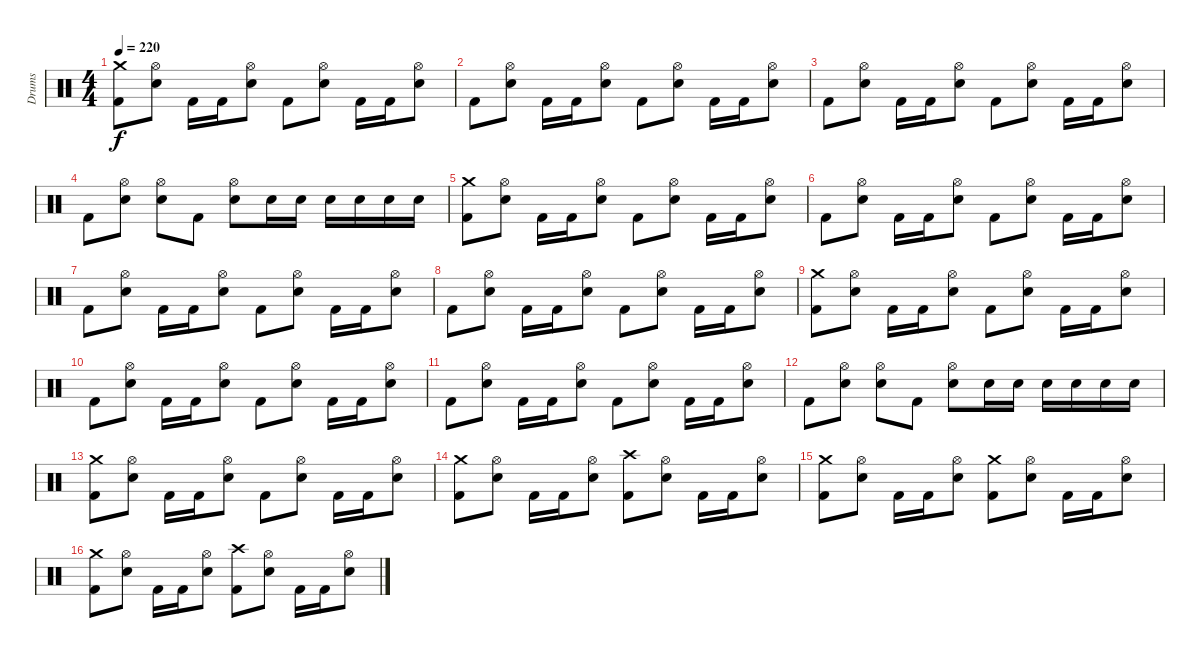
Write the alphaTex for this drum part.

\track ("Drums" "Drums") {instrument percussion}
\staff {score}
\articulation defaults
\ts (4 4)
\tempo 220
\clef neutral
\ks c
("Crash medium (hit)" "Kick (hit) 2").8{dy f} ("Hi-Hat (open)" "Electric Snare (hit)").8 "Kick (hit) 2".16 "Kick (hit) 2".16 ("Hi-Hat (open)" "Electric Snare (hit)").8 "Kick (hit) 2".8 ("Hi-Hat (open)" "Electric Snare (hit)").8 "Kick (hit) 2".16 "Kick (hit) 2".16 ("Hi-Hat (open)" "Electric Snare (hit)").8 |
"Kick (hit) 2".8 ("Hi-Hat (open)" "Electric Snare (hit)").8 "Kick (hit) 2".16 "Kick (hit) 2".16 ("Hi-Hat (open)" "Electric Snare (hit)").8 "Kick (hit) 2".8 ("Hi-Hat (open)" "Electric Snare (hit)").8 "Kick (hit) 2".16 "Kick (hit) 2".16 ("Hi-Hat (open)" "Electric Snare (hit)").8 |
"Kick (hit) 2".8 ("Hi-Hat (open)" "Electric Snare (hit)").8 "Kick (hit) 2".16 "Kick (hit) 2".16 ("Hi-Hat (open)" "Electric Snare (hit)").8 "Kick (hit) 2".8 ("Hi-Hat (open)" "Electric Snare (hit)").8 "Kick (hit) 2".16 "Kick (hit) 2".16 ("Hi-Hat (open)" "Electric Snare (hit)").8 |
"Kick (hit) 2".8 ("Hi-Hat (open)" "Electric Snare (hit)").8 ("Hi-Hat (open)" "Electric Snare (hit)").8 "Kick (hit) 2".8 ("Hi-Hat (open)" "Electric Snare (hit)").8 "Electric Snare (hit)".16 "Electric Snare (hit)".16 "Electric Snare (hit)".16 "Electric Snare (hit)".16 "Electric Snare (hit)".16 "Electric Snare (hit)".16 |
("Crash medium (hit)" "Kick (hit) 2").8 ("Hi-Hat (open)" "Electric Snare (hit)").8 "Kick (hit) 2".16 "Kick (hit) 2".16 ("Hi-Hat (open)" "Electric Snare (hit)").8 "Kick (hit) 2".8 ("Hi-Hat (open)" "Electric Snare (hit)").8 "Kick (hit) 2".16 "Kick (hit) 2".16 ("Hi-Hat (open)" "Electric Snare (hit)").8 |
"Kick (hit) 2".8 ("Hi-Hat (open)" "Electric Snare (hit)").8 "Kick (hit) 2".16 "Kick (hit) 2".16 ("Hi-Hat (open)" "Electric Snare (hit)").8 "Kick (hit) 2".8 ("Hi-Hat (open)" "Electric Snare (hit)").8 "Kick (hit) 2".16 "Kick (hit) 2".16 ("Hi-Hat (open)" "Electric Snare (hit)").8 |
"Kick (hit) 2".8 ("Hi-Hat (open)" "Electric Snare (hit)").8 "Kick (hit) 2".16 "Kick (hit) 2".16 ("Hi-Hat (open)" "Electric Snare (hit)").8 "Kick (hit) 2".8 ("Hi-Hat (open)" "Electric Snare (hit)").8 "Kick (hit) 2".16 "Kick (hit) 2".16 ("Hi-Hat (open)" "Electric Snare (hit)").8 |
"Kick (hit) 2".8 ("Hi-Hat (open)" "Electric Snare (hit)").8 "Kick (hit) 2".16 "Kick (hit) 2".16 ("Hi-Hat (open)" "Electric Snare (hit)").8 "Kick (hit) 2".8 ("Hi-Hat (open)" "Electric Snare (hit)").8 "Kick (hit) 2".16 "Kick (hit) 2".16 ("Hi-Hat (open)" "Electric Snare (hit)").8 |
("Crash medium (hit)" "Kick (hit) 2").8 ("Hi-Hat (open)" "Electric Snare (hit)").8 "Kick (hit) 2".16 "Kick (hit) 2".16 ("Hi-Hat (open)" "Electric Snare (hit)").8 "Kick (hit) 2".8 ("Hi-Hat (open)" "Electric Snare (hit)").8 "Kick (hit) 2".16 "Kick (hit) 2".16 ("Hi-Hat (open)" "Electric Snare (hit)").8 |
"Kick (hit) 2".8 ("Hi-Hat (open)" "Electric Snare (hit)").8 "Kick (hit) 2".16 "Kick (hit) 2".16 ("Hi-Hat (open)" "Electric Snare (hit)").8 "Kick (hit) 2".8 ("Hi-Hat (open)" "Electric Snare (hit)").8 "Kick (hit) 2".16 "Kick (hit) 2".16 ("Hi-Hat (open)" "Electric Snare (hit)").8 |
"Kick (hit) 2".8 ("Hi-Hat (open)" "Electric Snare (hit)").8 "Kick (hit) 2".16 "Kick (hit) 2".16 ("Hi-Hat (open)" "Electric Snare (hit)").8 "Kick (hit) 2".8 ("Hi-Hat (open)" "Electric Snare (hit)").8 "Kick (hit) 2".16 "Kick (hit) 2".16 ("Hi-Hat (open)" "Electric Snare (hit)").8 |
"Kick (hit) 2".8 ("Hi-Hat (open)" "Electric Snare (hit)").8 ("Hi-Hat (open)" "Electric Snare (hit)").8 "Kick (hit) 2".8 ("Hi-Hat (open)" "Electric Snare (hit)").8 "Electric Snare (hit)".16 "Electric Snare (hit)".16 "Electric Snare (hit)".16 "Electric Snare (hit)".16 "Electric Snare (hit)".16 "Electric Snare (hit)".16 |
("Crash medium (hit)" "Kick (hit) 2").8 ("Hi-Hat (open)" "Electric Snare (hit)").8 "Kick (hit) 2".16 "Kick (hit) 2".16 ("Hi-Hat (open)" "Electric Snare (hit)").8 "Kick (hit) 2".8 ("Hi-Hat (open)" "Electric Snare (hit)").8 "Kick (hit) 2".16 "Kick (hit) 2".16 ("Hi-Hat (open)" "Electric Snare (hit)").8 |
("Crash medium (hit)" "Kick (hit) 2").8 ("Hi-Hat (open)" "Electric Snare (hit)").8 "Kick (hit) 2".16 "Kick (hit) 2".16 ("Hi-Hat (open)" "Electric Snare (hit)").8 ("Crash high (hit)" "Kick (hit) 2").8 ("Hi-Hat (open)" "Electric Snare (hit)").8 "Kick (hit) 2".16 "Kick (hit) 2".16 ("Hi-Hat (open)" "Electric Snare (hit)").8 |
("Crash medium (hit)" "Kick (hit) 2").8 ("Hi-Hat (open)" "Electric Snare (hit)").8 "Kick (hit) 2".16 "Kick (hit) 2".16 ("Hi-Hat (open)" "Electric Snare (hit)").8 ("Crash medium (hit)" "Kick (hit) 2").8 ("Hi-Hat (open)" "Electric Snare (hit)").8 "Kick (hit) 2".16 "Kick (hit) 2".16 ("Hi-Hat (open)" "Electric Snare (hit)").8 |
("Crash medium (hit)" "Kick (hit) 2").8 ("Hi-Hat (open)" "Electric Snare (hit)").8 "Kick (hit) 2".16 "Kick (hit) 2".16 ("Hi-Hat (open)" "Electric Snare (hit)").8 ("Crash high (hit)" "Kick (hit) 2").8 ("Hi-Hat (open)" "Electric Snare (hit)").8 "Kick (hit) 2".16 "Kick (hit) 2".16 ("Hi-Hat (open)" "Electric Snare (hit)").8
